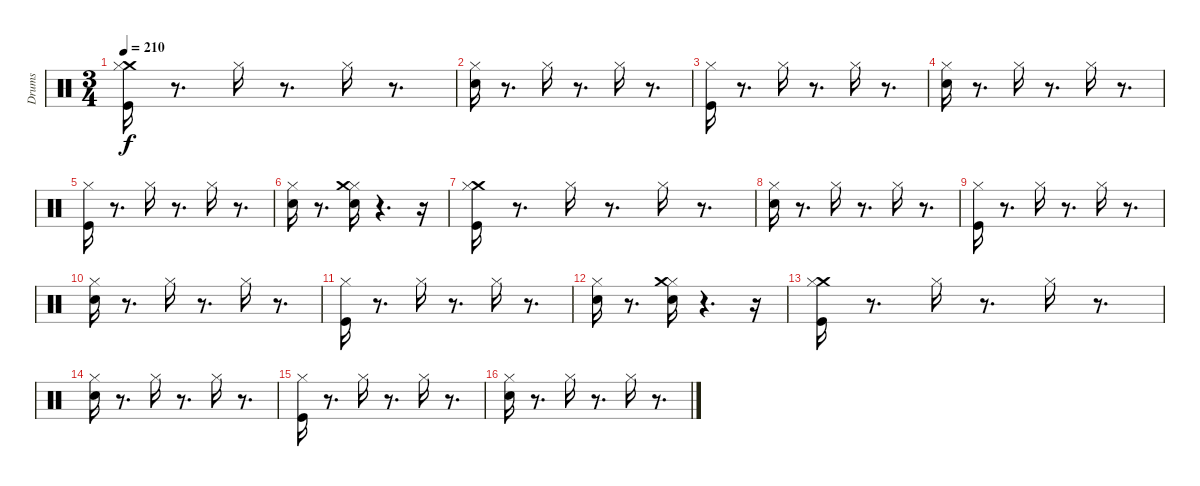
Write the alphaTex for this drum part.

\track ("Drums" "Drums") {instrument percussion}
\staff {score}
\articulation defaults
\ts (3 4)
\tempo 210
\clef neutral
\ks c
("Kick (hit)" "Crash medium (hit)" "Hi-Hat (closed)").16{dy f} r.8{d} "Hi-Hat (closed)".16 r.8{d} "Hi-Hat (closed)".16 r.8{d} |
("Hi-Hat (closed)" "Electric Snare (hit)").16 r.8{d} "Hi-Hat (closed)".16 r.8{d} "Hi-Hat (closed)".16 r.8{d} |
("Kick (hit)" "Hi-Hat (closed)").16 r.8{d} "Hi-Hat (closed)".16 r.8{d} "Hi-Hat (closed)".16 r.8{d} |
("Hi-Hat (closed)" "Electric Snare (hit)").16 r.8{d} "Hi-Hat (closed)".16 r.8{d} "Hi-Hat (closed)".16 r.8{d} |
("Kick (hit)" "Hi-Hat (closed)").16 r.8{d} "Hi-Hat (closed)".16 r.8{d} "Hi-Hat (closed)".16 r.8{d} |
("Hi-Hat (closed)" "Electric Snare (hit)").16 r.8{d} ("Hi-Hat (closed)" "Electric Snare (hit)" "Crash medium (hit)").16 r.4{d} r.16 |
("Kick (hit)" "Crash medium (hit)" "Hi-Hat (closed)").16 r.8{d} "Hi-Hat (closed)".16 r.8{d} "Hi-Hat (closed)".16 r.8{d} |
("Hi-Hat (closed)" "Electric Snare (hit)").16 r.8{d} "Hi-Hat (closed)".16 r.8{d} "Hi-Hat (closed)".16 r.8{d} |
("Kick (hit)" "Hi-Hat (closed)").16 r.8{d} "Hi-Hat (closed)".16 r.8{d} "Hi-Hat (closed)".16 r.8{d} |
("Hi-Hat (closed)" "Electric Snare (hit)").16 r.8{d} "Hi-Hat (closed)".16 r.8{d} "Hi-Hat (closed)".16 r.8{d} |
("Kick (hit)" "Hi-Hat (closed)").16 r.8{d} "Hi-Hat (closed)".16 r.8{d} "Hi-Hat (closed)".16 r.8{d} |
("Hi-Hat (closed)" "Electric Snare (hit)").16 r.8{d} ("Hi-Hat (closed)" "Electric Snare (hit)" "Crash medium (hit)").16 r.4{d} r.16 |
("Kick (hit)" "Crash medium (hit)" "Hi-Hat (closed)").16 r.8{d} "Hi-Hat (closed)".16 r.8{d} "Hi-Hat (closed)".16 r.8{d} |
("Hi-Hat (closed)" "Electric Snare (hit)").16 r.8{d} "Hi-Hat (closed)".16 r.8{d} "Hi-Hat (closed)".16 r.8{d} |
("Kick (hit)" "Hi-Hat (closed)").16 r.8{d} "Hi-Hat (closed)".16 r.8{d} "Hi-Hat (closed)".16 r.8{d} |
("Hi-Hat (closed)" "Electric Snare (hit)").16 r.8{d} "Hi-Hat (closed)".16 r.8{d} "Hi-Hat (closed)".16 r.8{d}
